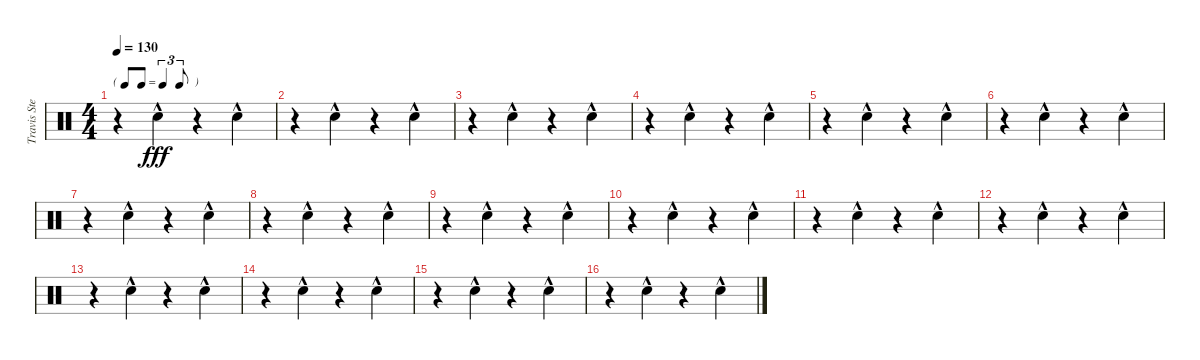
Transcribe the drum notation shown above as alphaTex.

\track ("Travis Stever (Hand Claps)" "Travis Ste") {instrument percussion}
\staff {score}
\articulation defaults
\ts (4 4)
\tf triplet8th
\tempo 130
\clef neutral
\ks c
r.4{dy fff} "Hand Clap (hit)"{hac}.4 r.4 "Hand Clap (hit)"{hac}.4 |
r.4 "Hand Clap (hit)"{hac}.4 r.4 "Hand Clap (hit)"{hac}.4 |
r.4 "Hand Clap (hit)"{hac}.4 r.4 "Hand Clap (hit)"{hac}.4 |
r.4 "Hand Clap (hit)"{hac}.4 r.4 "Hand Clap (hit)"{hac}.4 |
r.4 "Hand Clap (hit)"{hac}.4 r.4 "Hand Clap (hit)"{hac}.4 |
r.4 "Hand Clap (hit)"{hac}.4 r.4 "Hand Clap (hit)"{hac}.4 |
r.4 "Hand Clap (hit)"{hac}.4 r.4 "Hand Clap (hit)"{hac}.4 |
r.4 "Hand Clap (hit)"{hac}.4 r.4 "Hand Clap (hit)"{hac}.4 |
r.4 "Hand Clap (hit)"{hac}.4 r.4 "Hand Clap (hit)"{hac}.4 |
r.4 "Hand Clap (hit)"{hac}.4 r.4 "Hand Clap (hit)"{hac}.4 |
r.4 "Hand Clap (hit)"{hac}.4 r.4 "Hand Clap (hit)"{hac}.4 |
r.4 "Hand Clap (hit)"{hac}.4 r.4 "Hand Clap (hit)"{hac}.4 |
r.4 "Hand Clap (hit)"{hac}.4 r.4 "Hand Clap (hit)"{hac}.4 |
r.4 "Hand Clap (hit)"{hac}.4 r.4 "Hand Clap (hit)"{hac}.4 |
r.4 "Hand Clap (hit)"{hac}.4 r.4 "Hand Clap (hit)"{hac}.4 |
r.4 "Hand Clap (hit)"{hac}.4 r.4 "Hand Clap (hit)"{hac}.4
